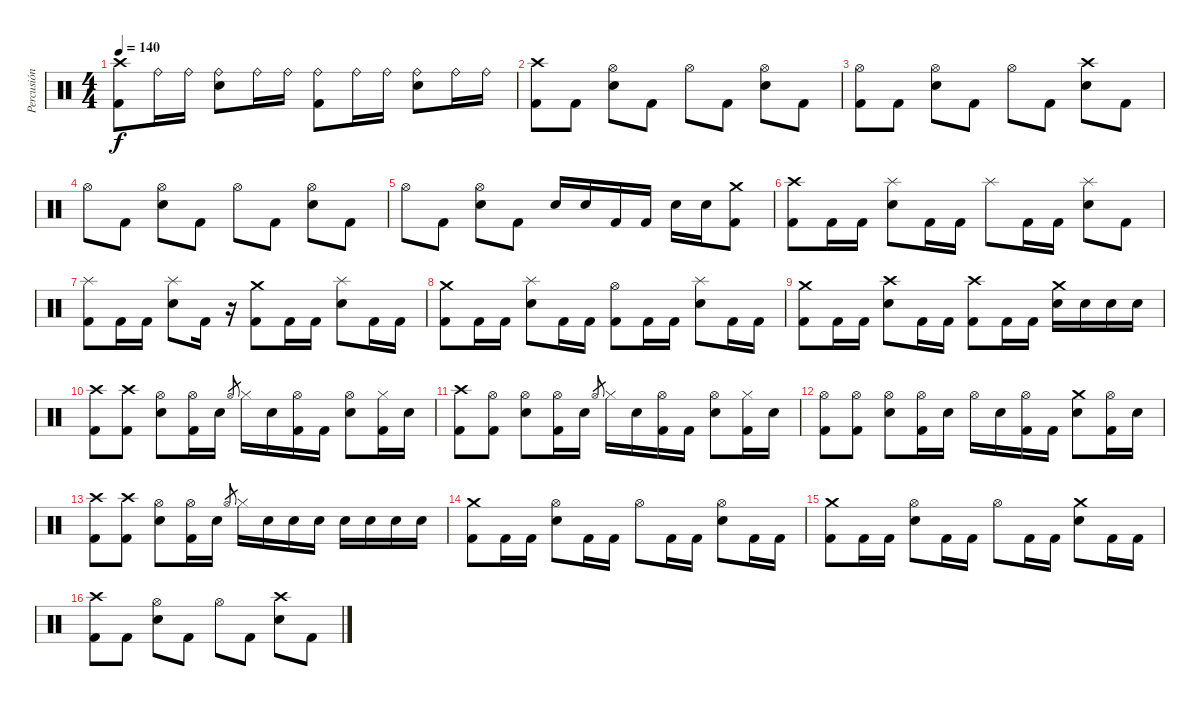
\track ("Percusión" "Percusión") {instrument percussion}
\staff {score}
\articulation defaults
\ts (4 4)
\tempo 140
\clef neutral
\ks c
("Crash high (hit)" "Kick (hit) 2").8{dy f} "Ride (bell)".16 "Ride (bell)".16 ("Ride (bell)" "Snare (hit) 2").8 "Ride (bell)".16 "Ride (bell)".16 ("Ride (bell)" "Kick (hit) 2").8 "Ride (bell)".16 "Ride (bell)".16 ("Ride (bell)" "Snare (hit) 2").8 "Ride (bell)".16 "Ride (bell)".16 |
("Crash high (hit)" "Kick (hit) 2").8 "Kick (hit) 2".8 ("Hi-Hat (open)" "Snare (hit) 2").8 "Kick (hit) 2".8 "Hi-Hat (open)".8 "Kick (hit) 2".8 ("Hi-Hat (open)" "Snare (hit) 2").8 "Kick (hit) 2".8 |
("Hi-Hat (open)" "Kick (hit) 2").8 "Kick (hit) 2".8 ("Hi-Hat (open)" "Snare (hit) 2").8 "Kick (hit) 2".8 "Hi-Hat (open)".8 "Kick (hit) 2".8 ("Crash high (hit)" "Snare (hit) 2").8 "Kick (hit) 2".8 |
"Hi-Hat (open)".8 "Kick (hit) 2".8 ("Hi-Hat (open)" "Snare (hit) 2").8 "Kick (hit) 2".8 "Hi-Hat (open)".8 "Kick (hit) 2".8 ("Hi-Hat (open)" "Snare (hit) 2").8 "Kick (hit) 2".8 |
"Hi-Hat (open)".8 "Kick (hit) 2".8 ("Hi-Hat (open)" "Snare (hit) 2").8 "Kick (hit) 2".8 "Snare (hit) 2".16 "Snare (hit) 2".16 "Kick (hit) 2".16 "Kick (hit) 2".16 "Snare (hit) 2".16 "Snare (hit) 2".16 ("Crash medium (hit)" "Kick (hit) 2").8 |
("Crash high (hit)" "Kick (hit) 2").8 "Kick (hit) 2".16 "Kick (hit) 2".16 ("Splash (hit)" "Snare (hit) 2").8 "Kick (hit) 2".16 "Kick (hit) 2".16 "Splash (hit)".8 "Kick (hit) 2".16 "Kick (hit) 2".16 ("Splash (hit)" "Snare (hit) 2").8 "Kick (hit) 2".8 |
("Splash (hit)" "Kick (hit) 2").8 "Kick (hit) 2".16 "Kick (hit) 2".16 ("Splash (hit)" "Snare (hit) 2").8 "Kick (hit) 2".16 r.16 ("Crash medium (hit)" "Kick (hit) 2").8 "Kick (hit) 2".16 "Kick (hit) 2".16 ("Splash (hit)" "Snare (hit) 2").8 "Kick (hit) 2".16 "Kick (hit) 2".16 |
("Crash medium (hit)" "Kick (hit) 2").8 "Kick (hit) 2".16 "Kick (hit) 2".16 ("Splash (hit)" "Snare (hit) 2").8 "Kick (hit) 2".16 "Kick (hit) 2".16 ("Hi-Hat (open)" "Kick (hit) 2").8 "Kick (hit) 2".16 "Kick (hit) 2".16 ("Splash (hit)" "Snare (hit) 2").8 "Kick (hit) 2".16 "Kick (hit) 2".16 |
("Crash medium (hit)" "Kick (hit) 2").8 "Kick (hit) 2".16 "Kick (hit) 2".16 ("Crash high (hit)" "Snare (hit) 2").8 "Kick (hit) 2".16 "Kick (hit) 2".16 ("Crash high (hit)" "Kick (hit) 2").8 "Kick (hit) 2".16 "Kick (hit) 2".16 ("Crash medium (hit)" "Snare (hit) 2").16 "Snare (hit) 2".16 "Snare (hit) 2".16 "Snare (hit) 2".16 |
("Crash high (hit)" "Kick (hit) 2").8 ("Crash high (hit)" "Kick (hit) 2").8 ("Hi-Hat (open)" "Snare (hit) 2").8 ("Hi-Hat (open)" "Kick (hit) 2").16 "Snare (hit) 2".16 "Hi-Hat (open)".8{gr} "Hi-Hat (closed)".16 "Snare (hit) 2".16 ("Hi-Hat (open)" "Kick (hit) 2").16 "Kick (hit) 2".16 ("Hi-Hat (open)" "Snare (hit) 2").8 ("Hi-Hat (closed)" "Kick (hit) 2").16 "Snare (hit) 2".16 |
("Crash high (hit)" "Kick (hit) 2").8 ("Hi-Hat (open)" "Kick (hit) 2").8 ("Hi-Hat (open)" "Snare (hit) 2").8 ("Hi-Hat (open)" "Kick (hit) 2").16 "Snare (hit) 2".16 "Hi-Hat (open)".8{gr} "Hi-Hat (closed)".16 "Snare (hit) 2".16 ("Hi-Hat (open)" "Kick (hit) 2").16 "Kick (hit) 2".16 ("Hi-Hat (open)" "Snare (hit) 2").8 ("Hi-Hat (closed)" "Kick (hit) 2").16 "Snare (hit) 2".16 |
("Hi-Hat (open)" "Kick (hit) 2").8 ("Hi-Hat (open)" "Kick (hit) 2").8 ("Hi-Hat (open)" "Snare (hit) 2").8 ("Hi-Hat (open)" "Kick (hit) 2").16 "Snare (hit) 2".16 "Hi-Hat (open)".16 "Snare (hit) 2".16 ("Hi-Hat (open)" "Kick (hit) 2").16 "Kick (hit) 2".16 ("Crash medium (hit)" "Snare (hit) 2").8 ("Hi-Hat (open)" "Kick (hit) 2").16 "Snare (hit) 2".16 |
("Crash high (hit)" "Kick (hit) 2").8 ("Crash high (hit)" "Kick (hit) 2").8 ("Hi-Hat (open)" "Snare (hit) 2").8 ("Hi-Hat (open)" "Kick (hit) 2").16 "Snare (hit) 2".16 "Hi-Hat (open)".8{gr} "Hi-Hat (closed)".16 "Snare (hit) 2".16 "Snare (hit) 2".16 "Snare (hit) 2".16 "Snare (hit) 2".16 "Snare (hit) 2".16 "Snare (hit) 2".16 "Snare (hit) 2".16 |
("Crash medium (hit)" "Kick (hit) 2").8 "Kick (hit) 2".16 "Kick (hit) 2".16 ("Hi-Hat (open)" "Snare (hit) 2").8 "Kick (hit) 2".16 "Kick (hit) 2".16 "Hi-Hat (open)".8 "Kick (hit) 2".16 "Kick (hit) 2".16 ("Hi-Hat (open)" "Snare (hit) 2").8 "Kick (hit) 2".16 "Kick (hit) 2".16 |
("Crash medium (hit)" "Kick (hit) 2").8 "Kick (hit) 2".16 "Kick (hit) 2".16 ("Hi-Hat (open)" "Snare (hit) 2").8 "Kick (hit) 2".16 "Kick (hit) 2".16 "Hi-Hat (open)".8 "Kick (hit) 2".16 "Kick (hit) 2".16 ("Crash medium (hit)" "Snare (hit) 2").8 "Kick (hit) 2".16 "Kick (hit) 2".16 |
("Crash high (hit)" "Kick (hit) 2").8 "Kick (hit) 2".8 ("Hi-Hat (open)" "Snare (hit) 2").8 "Kick (hit) 2".8 "Hi-Hat (open)".8 "Kick (hit) 2".8 ("Crash high (hit)" "Snare (hit) 2").8 "Kick (hit) 2".8
